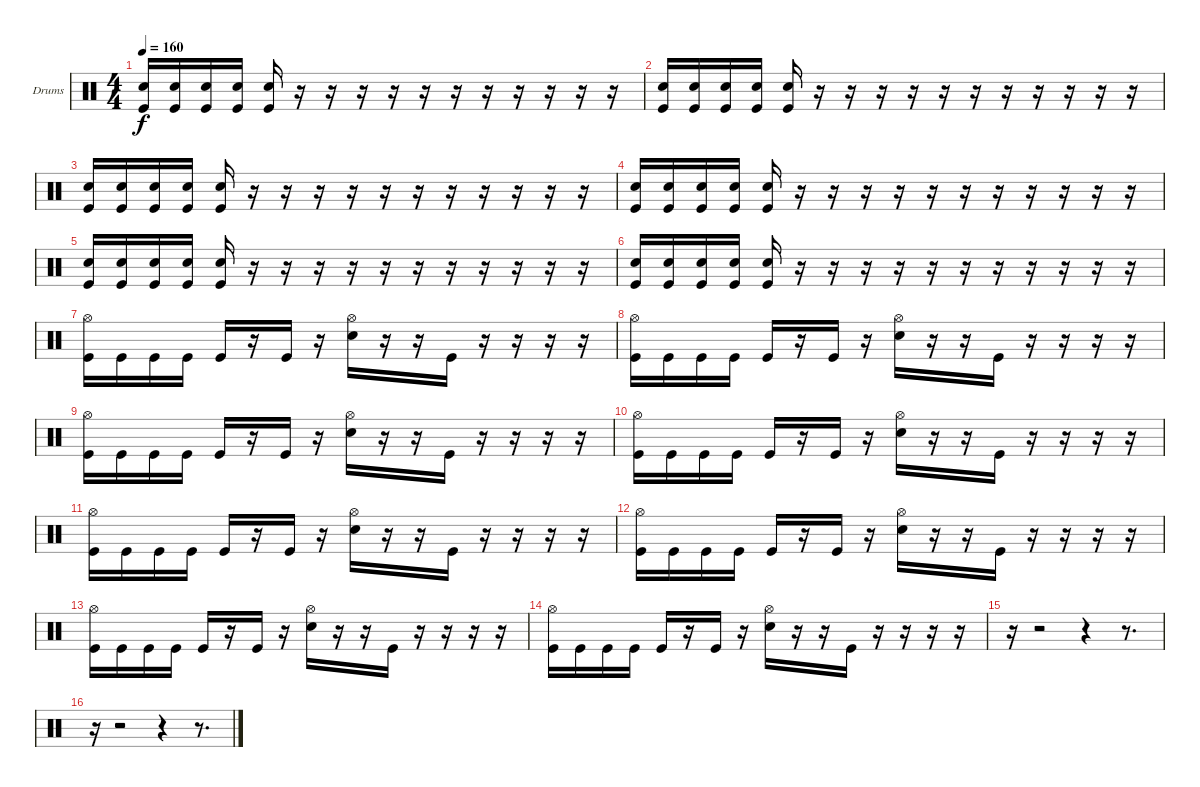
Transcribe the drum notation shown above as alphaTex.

\defaultSystemsLayout 4
\bracketExtendMode groupsimilarinstruments
\firstSystemTrackNameOrientation horizontal
\otherSystemsTrackNameOrientation horizontal
\track ("Drumkit" "Drums") {solo instrument percussion}
\staff {score}
\articulation defaults
\ts (4 4)
\tempo 160
\clef neutral
\ks c
("Snare (hit) 2" "Kick (hit)").16{dy f} ("Snare (hit) 2" "Kick (hit)").16 ("Snare (hit) 2" "Kick (hit)").16 ("Snare (hit) 2" "Kick (hit)").16 ("Snare (hit) 2" "Kick (hit)").16 r.16 r.16 r.16 r.16 r.16 r.16 r.16 r.16 r.16 r.16 r.16 |
("Snare (hit) 2" "Kick (hit)").16 ("Snare (hit) 2" "Kick (hit)").16 ("Snare (hit) 2" "Kick (hit)").16 ("Snare (hit) 2" "Kick (hit)").16 ("Snare (hit) 2" "Kick (hit)").16 r.16 r.16 r.16 r.16 r.16 r.16 r.16 r.16 r.16 r.16 r.16 |
("Snare (hit) 2" "Kick (hit)").16 ("Snare (hit) 2" "Kick (hit)").16 ("Snare (hit) 2" "Kick (hit)").16 ("Snare (hit) 2" "Kick (hit)").16 ("Snare (hit) 2" "Kick (hit)").16 r.16 r.16 r.16 r.16 r.16 r.16 r.16 r.16 r.16 r.16 r.16 |
("Snare (hit) 2" "Kick (hit)").16 ("Snare (hit) 2" "Kick (hit)").16 ("Snare (hit) 2" "Kick (hit)").16 ("Snare (hit) 2" "Kick (hit)").16 ("Snare (hit) 2" "Kick (hit)").16 r.16 r.16 r.16 r.16 r.16 r.16 r.16 r.16 r.16 r.16 r.16 |
("Snare (hit) 2" "Kick (hit)").16 ("Snare (hit) 2" "Kick (hit)").16 ("Snare (hit) 2" "Kick (hit)").16 ("Snare (hit) 2" "Kick (hit)").16 ("Snare (hit) 2" "Kick (hit)").16 r.16 r.16 r.16 r.16 r.16 r.16 r.16 r.16 r.16 r.16 r.16 |
("Snare (hit) 2" "Kick (hit)").16 ("Snare (hit) 2" "Kick (hit)").16 ("Snare (hit) 2" "Kick (hit)").16 ("Snare (hit) 2" "Kick (hit)").16 ("Snare (hit) 2" "Kick (hit)").16 r.16 r.16 r.16 r.16 r.16 r.16 r.16 r.16 r.16 r.16 r.16 |
("Hi-Hat (open)" "Kick (hit)").16 "Kick (hit)".16 "Kick (hit)".16 "Kick (hit)".16 "Kick (hit)".16 r.16 "Kick (hit)".16 r.16 ("Hi-Hat (open)" "Snare (hit) 2").16 r.16 r.16 "Kick (hit)".16 r.16 r.16 r.16 r.16 |
("Hi-Hat (open)" "Kick (hit)").16 "Kick (hit)".16 "Kick (hit)".16 "Kick (hit)".16 "Kick (hit)".16 r.16 "Kick (hit)".16 r.16 ("Hi-Hat (open)" "Snare (hit) 2").16 r.16 r.16 "Kick (hit)".16 r.16 r.16 r.16 r.16 |
("Hi-Hat (open)" "Kick (hit)").16 "Kick (hit)".16 "Kick (hit)".16 "Kick (hit)".16 "Kick (hit)".16 r.16 "Kick (hit)".16 r.16 ("Hi-Hat (open)" "Snare (hit) 2").16 r.16 r.16 "Kick (hit)".16 r.16 r.16 r.16 r.16 |
("Hi-Hat (open)" "Kick (hit)").16 "Kick (hit)".16 "Kick (hit)".16 "Kick (hit)".16 "Kick (hit)".16 r.16 "Kick (hit)".16 r.16 ("Hi-Hat (open)" "Snare (hit) 2").16 r.16 r.16 "Kick (hit)".16 r.16 r.16 r.16 r.16 |
("Hi-Hat (open)" "Kick (hit)").16 "Kick (hit)".16 "Kick (hit)".16 "Kick (hit)".16 "Kick (hit)".16 r.16 "Kick (hit)".16 r.16 ("Hi-Hat (open)" "Snare (hit) 2").16 r.16 r.16 "Kick (hit)".16 r.16 r.16 r.16 r.16 |
("Hi-Hat (open)" "Kick (hit)").16 "Kick (hit)".16 "Kick (hit)".16 "Kick (hit)".16 "Kick (hit)".16 r.16 "Kick (hit)".16 r.16 ("Hi-Hat (open)" "Snare (hit) 2").16 r.16 r.16 "Kick (hit)".16 r.16 r.16 r.16 r.16 |
("Hi-Hat (open)" "Kick (hit)").16 "Kick (hit)".16 "Kick (hit)".16 "Kick (hit)".16 "Kick (hit)".16 r.16 "Kick (hit)".16 r.16 ("Hi-Hat (open)" "Snare (hit) 2").16 r.16 r.16 "Kick (hit)".16 r.16 r.16 r.16 r.16 |
("Hi-Hat (open)" "Kick (hit)").16 "Kick (hit)".16 "Kick (hit)".16 "Kick (hit)".16 "Kick (hit)".16 r.16 "Kick (hit)".16 r.16 ("Hi-Hat (open)" "Snare (hit) 2").16 r.16 r.16 "Kick (hit)".16 r.16 r.16 r.16 r.16 |
r.16 r.2 r.4 r.8{d} |
r.16 r.2 r.4 r.8{d}
